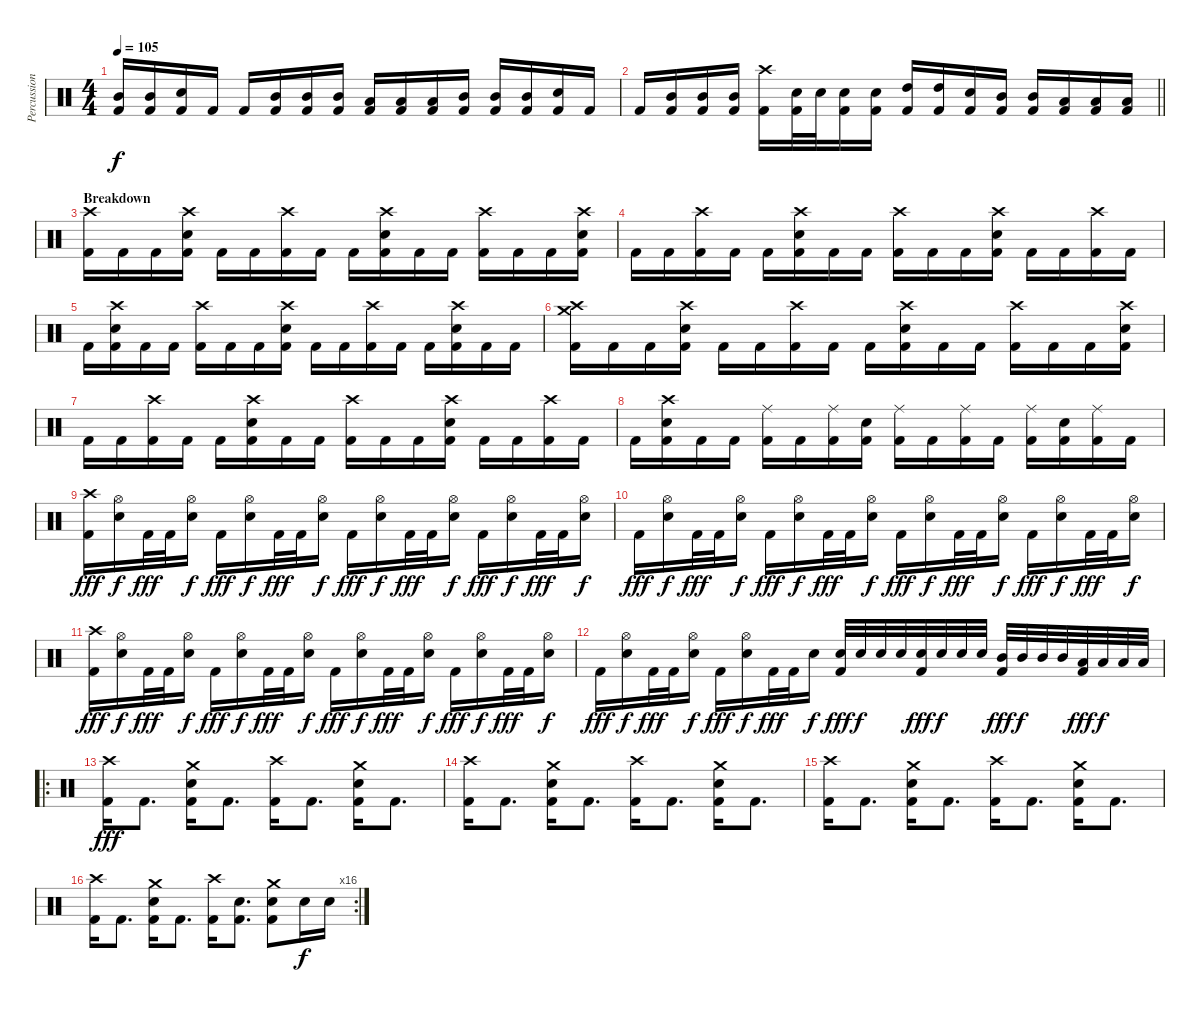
\track ("Percussion" "Percussion") {instrument percussion}
\staff {score}
\articulation defaults
\ts (4 4)
\tempo 105
\clef neutral
\ks c
("Mid Tom (hit)" "Kick (hit) 2").16{dy f} ("Mid Tom (hit)" "Kick (hit) 2").16 ("Electric Snare (hit)" "Kick (hit) 2").16 "Kick (hit) 2".16 "Kick (hit) 2".16 ("Mid Tom (hit)" "Kick (hit) 2").16 ("Mid Tom (hit)" "Kick (hit) 2").16 ("Mid Tom (hit)" "Kick (hit) 2").16 ("Low Tom (hit)" "Kick (hit) 2").16 ("Low Tom (hit)" "Kick (hit) 2").16 ("Low Tom (hit)" "Kick (hit) 2").16 ("Mid Tom (hit)" "Kick (hit) 2").16 ("Mid Tom (hit)" "Kick (hit) 2").16 ("Mid Tom (hit)" "Kick (hit) 2").16 ("Electric Snare (hit)" "Kick (hit) 2").16 "Kick (hit) 2".16 |
\barLineRight lightlight "Kick (hit) 2".16
("Mid Tom (hit)" "Kick (hit) 2").16 ("Mid Tom (hit)" "Kick (hit) 2").16 ("Mid Tom (hit)" "Kick (hit) 2").16 ("Crash high (hit)" "Kick (hit) 2").16 ("Electric Snare (hit)" "Kick (hit) 2").32 "Electric Snare (hit)".32 ("Electric Snare (hit)" "Kick (hit) 2").16 ("Electric Snare (hit)" "Kick (hit) 2").16 ("High Tom (hit)" "Kick (hit) 2").16 ("High Tom (hit)" "Kick (hit) 2").16 ("Electric Snare (hit)" "Kick (hit) 2").16 ("Mid Tom (hit)" "Kick (hit) 2").16 ("Mid Tom (hit)" "Kick (hit) 2").16 ("Low Tom (hit)" "Kick (hit) 2").16 ("Low Tom (hit)" "Kick (hit) 2").16 ("Low Tom (hit)" "Kick (hit) 2").16 |
\section ("" "Breakdown")
("Crash high (hit)" "Kick (hit) 2").16 "Kick (hit) 2".16 "Kick (hit) 2".16 ("Crash high (hit)" "Electric Snare (hit)" "Kick (hit) 2").16 "Kick (hit) 2".16 "Kick (hit) 2".16 ("Crash high (hit)" "Kick (hit) 2").16 "Kick (hit) 2".16 "Kick (hit) 2".16 ("Crash high (hit)" "Electric Snare (hit)" "Kick (hit) 2").16 "Kick (hit) 2".16 "Kick (hit) 2".16 ("Crash high (hit)" "Kick (hit) 2").16 "Kick (hit) 2".16 "Kick (hit) 2".16 ("Crash high (hit)" "Electric Snare (hit)" "Kick (hit) 2").16 |
"Kick (hit) 2".16 "Kick (hit) 2".16 ("Crash high (hit)" "Kick (hit) 2").16 "Kick (hit) 2".16 "Kick (hit) 2".16 ("Crash high (hit)" "Electric Snare (hit)" "Kick (hit) 2").16 "Kick (hit) 2".16 "Kick (hit) 2".16 ("Crash high (hit)" "Kick (hit) 2").16 "Kick (hit) 2".16 "Kick (hit) 2".16 ("Crash high (hit)" "Electric Snare (hit)" "Kick (hit) 2").16 "Kick (hit) 2".16 "Kick (hit) 2".16 ("Crash high (hit)" "Kick (hit) 2").16 "Kick (hit) 2".16 |
"Kick (hit) 2".16 ("Crash high (hit)" "Electric Snare (hit)" "Kick (hit) 2").16 "Kick (hit) 2".16 "Kick (hit) 2".16 ("Crash high (hit)" "Kick (hit) 2").16 "Kick (hit) 2".16 "Kick (hit) 2".16 ("Crash high (hit)" "Electric Snare (hit)" "Kick (hit) 2").16 "Kick (hit) 2".16 "Kick (hit) 2".16 ("Crash high (hit)" "Kick (hit) 2").16 "Kick (hit) 2".16 "Kick (hit) 2".16 ("Crash high (hit)" "Electric Snare (hit)" "Kick (hit) 2").16 "Kick (hit) 2".16 "Kick (hit) 2".16 |
("Crash high (hit)" "Crash medium (hit)" "Kick (hit) 2").16 "Kick (hit) 2".16 "Kick (hit) 2".16 ("Crash high (hit)" "Electric Snare (hit)" "Kick (hit) 2").16 "Kick (hit) 2".16 "Kick (hit) 2".16 ("Crash high (hit)" "Kick (hit) 2").16 "Kick (hit) 2".16 "Kick (hit) 2".16 ("Crash high (hit)" "Electric Snare (hit)" "Kick (hit) 2").16 "Kick (hit) 2".16 "Kick (hit) 2".16 ("Crash high (hit)" "Kick (hit) 2").16 "Kick (hit) 2".16 "Kick (hit) 2".16 ("Crash high (hit)" "Electric Snare (hit)" "Kick (hit) 2").16 |
"Kick (hit) 2".16 "Kick (hit) 2".16 ("Crash high (hit)" "Kick (hit) 2").16 "Kick (hit) 2".16 "Kick (hit) 2".16 ("Crash high (hit)" "Electric Snare (hit)" "Kick (hit) 2").16 "Kick (hit) 2".16 "Kick (hit) 2".16 ("Crash high (hit)" "Kick (hit) 2").16 "Kick (hit) 2".16 "Kick (hit) 2".16 ("Crash high (hit)" "Electric Snare (hit)" "Kick (hit) 2").16 "Kick (hit) 2".16 "Kick (hit) 2".16 ("Crash high (hit)" "Kick (hit) 2").16 "Kick (hit) 2".16 |
"Kick (hit) 2".16 ("Crash high (hit)" "Electric Snare (hit)" "Kick (hit) 2").16 "Kick (hit) 2".16 "Kick (hit) 2".16 ("Ride (middle)" "Kick (hit) 2").16 "Kick (hit) 2".16 ("Ride (middle)" "Kick (hit) 2").16 ("Electric Snare (hit)" "Kick (hit) 2").16 ("Ride (middle)" "Kick (hit) 2").16 "Kick (hit) 2".16 ("Ride (middle)" "Kick (hit) 2").16 "Kick (hit) 2".16 ("Ride (middle)" "Kick (hit) 2").16 ("Electric Snare (hit)" "Kick (hit) 2").16 ("Ride (middle)" "Kick (hit) 2").16 "Kick (hit) 2".16 |
("Crash high (hit)" "Kick (hit) 2").16{dy fff} ("Hi-Hat (open)" "Electric Snare (hit)").16{dy f} "Kick (hit) 2".32{dy fff} "Kick (hit) 2".32 ("Hi-Hat (open)" "Electric Snare (hit)").16{dy f} "Kick (hit) 2".16{dy fff} ("Hi-Hat (open)" "Electric Snare (hit)").16{dy f} "Kick (hit) 2".32{dy fff} "Kick (hit) 2".32 ("Hi-Hat (open)" "Electric Snare (hit)").16{dy f} "Kick (hit) 2".16{dy fff} ("Hi-Hat (open)" "Electric Snare (hit)").16{dy f} "Kick (hit) 2".32{dy fff} "Kick (hit) 2".32 ("Hi-Hat (open)" "Electric Snare (hit)").16{dy f} "Kick (hit) 2".16{dy fff} ("Hi-Hat (open)" "Electric Snare (hit)").16{dy f} "Kick (hit) 2".32{dy fff} "Kick (hit) 2".32 ("Hi-Hat (open)" "Electric Snare (hit)").16{dy f} |
"Kick (hit) 2".16{dy fff} ("Hi-Hat (open)" "Electric Snare (hit)").16{dy f} "Kick (hit) 2".32{dy fff} "Kick (hit) 2".32 ("Hi-Hat (open)" "Electric Snare (hit)").16{dy f} "Kick (hit) 2".16{dy fff} ("Hi-Hat (open)" "Electric Snare (hit)").16{dy f} "Kick (hit) 2".32{dy fff} "Kick (hit) 2".32 ("Hi-Hat (open)" "Electric Snare (hit)").16{dy f} "Kick (hit) 2".16{dy fff} ("Hi-Hat (open)" "Electric Snare (hit)").16{dy f} "Kick (hit) 2".32{dy fff} "Kick (hit) 2".32 ("Hi-Hat (open)" "Electric Snare (hit)").16{dy f} "Kick (hit) 2".16{dy fff} ("Hi-Hat (open)" "Electric Snare (hit)").16{dy f} "Kick (hit) 2".32{dy fff} "Kick (hit) 2".32 ("Hi-Hat (open)" "Electric Snare (hit)").16{dy f} |
("Crash high (hit)" "Kick (hit) 2").16{dy fff} ("Hi-Hat (open)" "Electric Snare (hit)").16{dy f} "Kick (hit) 2".32{dy fff} "Kick (hit) 2".32 ("Hi-Hat (open)" "Electric Snare (hit)").16{dy f} "Kick (hit) 2".16{dy fff} ("Hi-Hat (open)" "Electric Snare (hit)").16{dy f} "Kick (hit) 2".32{dy fff} "Kick (hit) 2".32 ("Hi-Hat (open)" "Electric Snare (hit)").16{dy f} "Kick (hit) 2".16{dy fff} ("Hi-Hat (open)" "Electric Snare (hit)").16{dy f} "Kick (hit) 2".32{dy fff} "Kick (hit) 2".32 ("Hi-Hat (open)" "Electric Snare (hit)").16{dy f} "Kick (hit) 2".16{dy fff} ("Hi-Hat (open)" "Electric Snare (hit)").16{dy f} "Kick (hit) 2".32{dy fff} "Kick (hit) 2".32 ("Hi-Hat (open)" "Electric Snare (hit)").16{dy f} |
"Kick (hit) 2".16{dy fff} ("Hi-Hat (open)" "Electric Snare (hit)").16{dy f} "Kick (hit) 2".32{dy fff} "Kick (hit) 2".32 ("Hi-Hat (open)" "Electric Snare (hit)").16{dy f} "Kick (hit) 2".16{dy fff} ("Hi-Hat (open)" "Electric Snare (hit)").16{dy f} "Kick (hit) 2".32{dy fff} "Kick (hit) 2".32 "Electric Snare (hit)".16{dy f} ("Electric Snare (hit)" "Kick (hit) 2").32{dy fff} "Electric Snare (hit)".32{dy f} "Electric Snare (hit)".32 "Electric Snare (hit)".32 ("Electric Snare (hit)" "Kick (hit) 2").32{dy fff} "Electric Snare (hit)".32{dy f} "Electric Snare (hit)".32 "Electric Snare (hit)".32 ("Mid Tom (hit)" "Kick (hit) 2").32{dy fff} "Mid Tom (hit)".32{dy f} "Mid Tom (hit)".32 "Mid Tom (hit)".32 ("Low Tom (hit)" "Kick (hit) 2").32{dy fff} "Low Tom (hit)".32{dy f} "Low Tom (hit)".32 "Low Tom (hit)".32 |
\ro
("Crash high (hit)" "Kick (hit) 2").16{dy fff} "Kick (hit) 2".8{d} ("Crash medium (hit)" "Electric Snare (hit)" "Kick (hit) 2").16 "Kick (hit) 2".8{d} ("Crash high (hit)" "Kick (hit) 2").16 "Kick (hit) 2".8{d} ("Crash medium (hit)" "Electric Snare (hit)" "Kick (hit) 2").16 "Kick (hit) 2".8{d} |
("Crash high (hit)" "Kick (hit) 2").16 "Kick (hit) 2".8{d} ("Crash medium (hit)" "Electric Snare (hit)" "Kick (hit) 2").16 "Kick (hit) 2".8{d} ("Crash high (hit)" "Kick (hit) 2").16 "Kick (hit) 2".8{d} ("Crash medium (hit)" "Electric Snare (hit)" "Kick (hit) 2").16 "Kick (hit) 2".8{d} |
("Crash high (hit)" "Kick (hit) 2").16 "Kick (hit) 2".8{d} ("Crash medium (hit)" "Electric Snare (hit)" "Kick (hit) 2").16 "Kick (hit) 2".8{d} ("Crash high (hit)" "Kick (hit) 2").16 "Kick (hit) 2".8{d} ("Crash medium (hit)" "Electric Snare (hit)" "Kick (hit) 2").16 "Kick (hit) 2".8{d} |
\rc 16
("Crash high (hit)" "Kick (hit) 2").16 "Kick (hit) 2".8{d} ("Crash medium (hit)" "Electric Snare (hit)" "Kick (hit) 2").16 "Kick (hit) 2".8{d} ("Crash high (hit)" "Kick (hit) 2").16 ("Electric Snare (hit)" "Kick (hit) 2").8{d} ("Crash medium (hit)" "Electric Snare (hit)" "Kick (hit) 2").8 "Electric Snare (hit)".16{dy f} "Electric Snare (hit)".16
